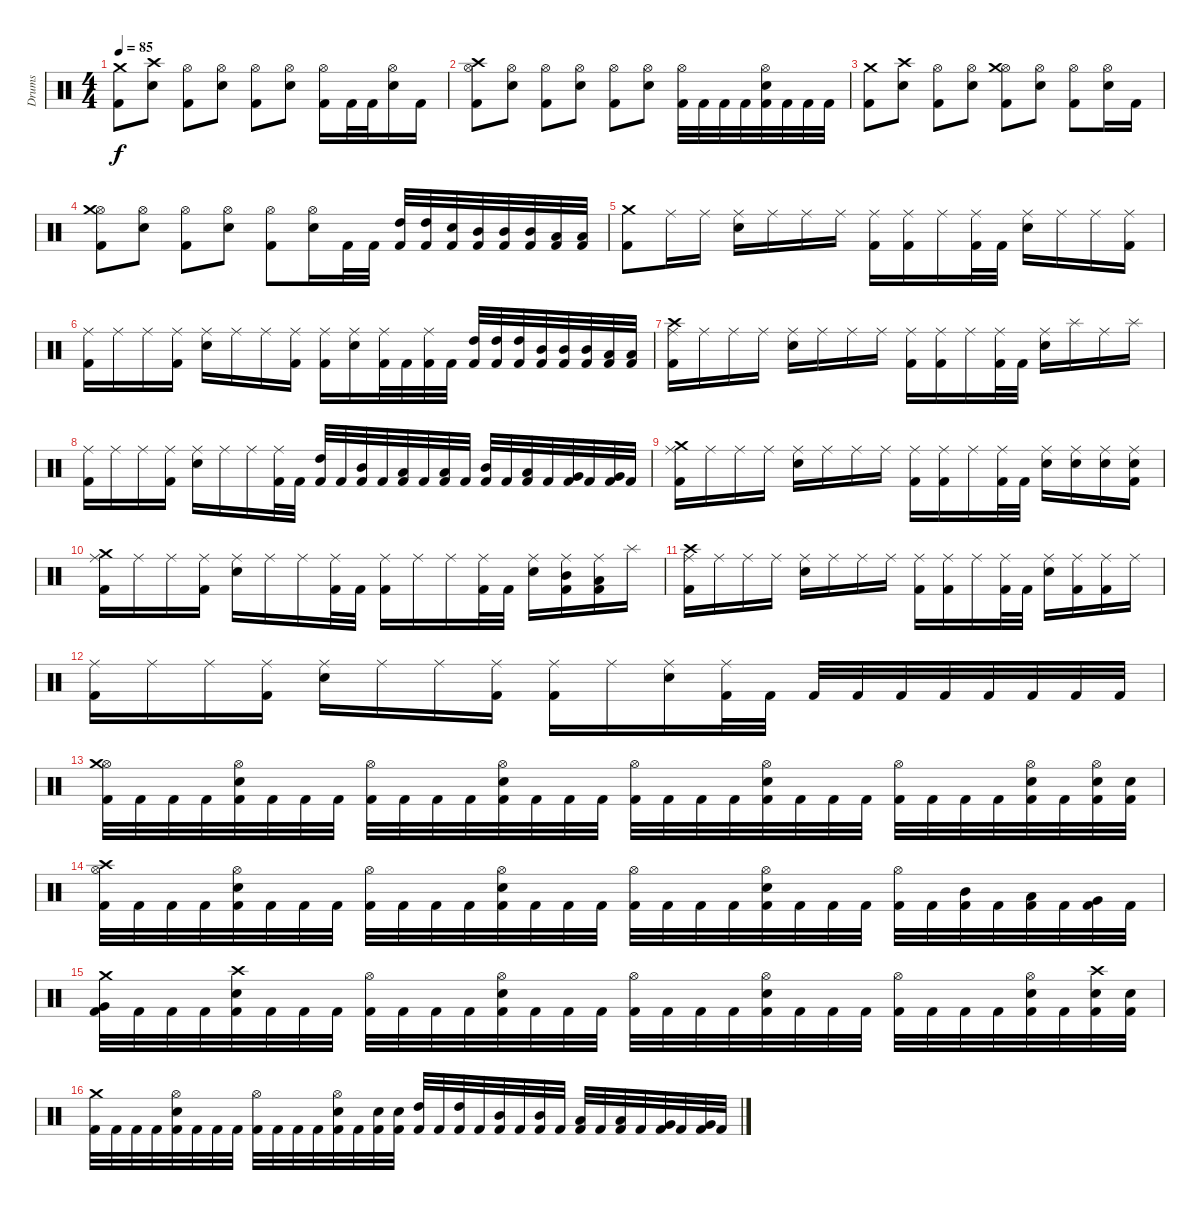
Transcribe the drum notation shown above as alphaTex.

\track ("Drums" "Drums") {instrument percussion}
\staff {score}
\articulation defaults
\ts (4 4)
\tempo 85
\clef neutral
\ks c
("Kick (hit) 2" "Crash medium (hit)").8{dy f} ("Electric Snare (hit)" "Crash high (hit)").8 ("Kick (hit) 2" "Hi-Hat (open)").8 ("Electric Snare (hit)" "Hi-Hat (open)").8 ("Kick (hit) 2" "Hi-Hat (open)").8 ("Electric Snare (hit)" "Hi-Hat (open)").8 ("Kick (hit) 2" "Hi-Hat (open)").16 "Kick (hit) 2".32 "Kick (hit) 2".32 ("Electric Snare (hit)" "Hi-Hat (open)").16 "Kick (hit) 2".16 |
("Kick (hit) 2" "Hi-Hat (open)" "Crash high (hit)").8 ("Electric Snare (hit)" "Hi-Hat (open)").8 ("Kick (hit) 2" "Hi-Hat (open)").8 ("Electric Snare (hit)" "Hi-Hat (open)").8 ("Kick (hit) 2" "Hi-Hat (open)").8 ("Electric Snare (hit)" "Hi-Hat (open)").8 ("Kick (hit) 2" "Hi-Hat (open)").32 "Kick (hit) 2".32 "Kick (hit) 2".32 "Kick (hit) 2".32 ("Kick (hit) 2" "Electric Snare (hit)" "Hi-Hat (open)").32 "Kick (hit) 2".32 "Kick (hit) 2".32 "Kick (hit) 2".32 |
("Kick (hit) 2" "Crash medium (hit)").8 ("Electric Snare (hit)" "Crash high (hit)").8 ("Kick (hit) 2" "Hi-Hat (open)").8 ("Electric Snare (hit)" "Hi-Hat (open)").8 ("Kick (hit) 2" "Hi-Hat (open)" "Crash medium (hit)").8 ("Electric Snare (hit)" "Hi-Hat (open)").8 ("Kick (hit) 2" "Hi-Hat (open)").8 ("Electric Snare (hit)" "Hi-Hat (open)").16 "Kick (hit) 2".16 |
("Kick (hit) 2" "Hi-Hat (open)" "Crash medium (hit)").8 ("Electric Snare (hit)" "Hi-Hat (open)").8 ("Kick (hit) 2" "Hi-Hat (open)").8 ("Electric Snare (hit)" "Hi-Hat (open)").8 ("Kick (hit) 2" "Hi-Hat (open)").8 ("Electric Snare (hit)" "Hi-Hat (open)").16 "Kick (hit) 2".32 "Kick (hit) 2".32 ("Kick (hit) 2" "High Tom (hit)").32 ("Kick (hit) 2" "High Tom (hit)").32 ("Kick (hit) 2" "Electric Snare (hit)").32 ("Kick (hit) 2" "Mid Tom (hit)").32 ("Kick (hit) 2" "Mid Tom (hit)").32 ("Kick (hit) 2" "Mid Tom (hit)").32 ("Kick (hit) 2" "Low Tom (hit)").32 ("Kick (hit) 2" "Low Tom (hit)").32 |
("Kick (hit) 2" "Crash medium (hit)").8 "Ride (middle)".16 "Ride (middle)".16 ("Electric Snare (hit)" "Ride (middle)").16 "Ride (middle)".16 "Ride (middle)".16 "Ride (middle)".16 ("Kick (hit) 2" "Ride (middle)").16 ("Kick (hit) 2" "Ride (middle)").16 "Ride (middle)".16 ("Kick (hit) 2" "Ride (middle)").32 "Kick (hit) 2".32 ("Electric Snare (hit)" "Ride (middle)").16 "Ride (middle)".16 "Ride (middle)".16 ("Kick (hit) 2" "Ride (middle)").16 |
("Kick (hit) 2" "Ride (middle)").16 "Ride (middle)".16 "Ride (middle)".16 ("Kick (hit) 2" "Ride (middle)").16 ("Electric Snare (hit)" "Ride (middle)").16 "Ride (middle)".16 "Ride (middle)".16 ("Kick (hit) 2" "Ride (middle)").16 ("Kick (hit) 2" "Ride (middle)").16 ("Electric Snare (hit)" "Ride (middle)").16 ("Kick (hit) 2" "Ride (middle)").32 "Kick (hit) 2".32 ("Kick (hit) 2" "Ride (middle)").32 "Kick (hit) 2".32 ("Kick (hit) 2" "High Tom (hit)").32 ("Kick (hit) 2" "High Tom (hit)").32 ("Kick (hit) 2" "High Tom (hit)").32 ("Kick (hit) 2" "Mid Tom (hit)").32 ("Kick (hit) 2" "Mid Tom (hit)").32 ("Kick (hit) 2" "Mid Tom (hit)").32 ("Kick (hit) 2" "Low Tom (hit)").32 ("Kick (hit) 2" "Low Tom (hit)").32 |
("Kick (hit) 2" "Ride (middle)" "Crash high (hit)").16 "Ride (middle)".16 "Ride (middle)".16 "Ride (middle)".16 ("Electric Snare (hit)" "Ride (middle)").16 "Ride (middle)".16 "Ride (middle)".16 "Ride (middle)".16 ("Kick (hit) 2" "Ride (middle)").16 ("Kick (hit) 2" "Ride (middle)").16 "Ride (middle)".16 ("Kick (hit) 2" "Ride (middle)").32 "Kick (hit) 2".32 ("Electric Snare (hit)" "Ride (middle)").16 "Splash (hit)".16 "Ride (middle)".16 "Splash (hit)".16 |
("Kick (hit) 2" "Ride (middle)").16 "Ride (middle)".16 "Ride (middle)".16 ("Kick (hit) 2" "Ride (middle)").16 ("Electric Snare (hit)" "Ride (middle)").16 "Ride (middle)".16 "Ride (middle)".16 ("Kick (hit) 2" "Ride (middle)").32 "Kick (hit) 2".32 ("Kick (hit) 2" "High Tom (hit)").32 "Kick (hit) 2".32 ("Kick (hit) 2" "Mid Tom (hit)").32 "Kick (hit) 2".32 ("Kick (hit) 2" "Low Tom (hit)").32 "Kick (hit) 2".32 ("Kick (hit) 2" "Low Tom (hit)").32 "Kick (hit) 2".32 ("Kick (hit) 2" "Mid Tom (hit)").32 "Kick (hit) 2".32 ("Kick (hit) 2" "Low Tom (hit)").32 "Kick (hit) 2".32 ("Kick (hit) 2" "Very Low Tom (hit)").32 "Kick (hit) 2".32 ("Kick (hit) 2" "Very Low Tom (hit)").32 "Kick (hit) 2".32 |
("Kick (hit) 2" "Ride (middle)" "Crash medium (hit)").16 "Ride (middle)".16 "Ride (middle)".16 "Ride (middle)".16 ("Electric Snare (hit)" "Ride (middle)").16 "Ride (middle)".16 "Ride (middle)".16 "Ride (middle)".16 ("Kick (hit) 2" "Ride (middle)").16 ("Kick (hit) 2" "Ride (middle)").16 "Ride (middle)".16 ("Kick (hit) 2" "Ride (middle)").32 "Kick (hit) 2".32 ("Electric Snare (hit)" "Ride (middle)").16 ("Electric Snare (hit)" "Ride (middle)").16 ("Electric Snare (hit)" "Ride (middle)").16 ("Kick (hit) 2" "Electric Snare (hit)" "Ride (middle)").16 |
("Kick (hit) 2" "Ride (middle)" "Crash medium (hit)").16 "Ride (middle)".16 "Ride (middle)".16 ("Kick (hit) 2" "Ride (middle)").16 ("Electric Snare (hit)" "Ride (middle)").16 "Ride (middle)".16 "Ride (middle)".16 ("Kick (hit) 2" "Ride (middle)").32 "Kick (hit) 2".32 ("Kick (hit) 2" "Ride (middle)").16 "Ride (middle)".16 "Ride (middle)".16 ("Kick (hit) 2" "Ride (middle)").32 "Kick (hit) 2".32 ("Electric Snare (hit)" "Ride (middle)").16 ("Kick (hit) 2" "Mid Tom (hit)" "Ride (middle)").16 ("Kick (hit) 2" "Low Tom (hit)" "Ride (middle)").16 "Splash (hit)".16 |
("Kick (hit) 2" "Ride (middle)" "Crash high (hit)").16 "Ride (middle)".16 "Ride (middle)".16 "Ride (middle)".16 ("Electric Snare (hit)" "Ride (middle)").16 "Ride (middle)".16 "Ride (middle)".16 "Ride (middle)".16 ("Kick (hit) 2" "Ride (middle)").16 ("Kick (hit) 2" "Ride (middle)").16 "Ride (middle)".16 ("Kick (hit) 2" "Ride (middle)").32 "Kick (hit) 2".32 ("Electric Snare (hit)" "Ride (middle)").16 ("Kick (hit) 2" "Ride (middle)").16 ("Kick (hit) 2" "Ride (middle)").16 "Ride (middle)".16 |
("Kick (hit) 2" "Ride (middle)").16 "Ride (middle)".16 "Ride (middle)".16 ("Kick (hit) 2" "Ride (middle)").16 ("Electric Snare (hit)" "Ride (middle)").16 "Ride (middle)".16 "Ride (middle)".16 ("Kick (hit) 2" "Ride (middle)").16 ("Kick (hit) 2" "Ride (middle)").16 "Ride (middle)".16 ("Electric Snare (hit)" "Ride (middle)").16 ("Kick (hit) 2" "Ride (middle)").32 "Kick (hit) 2".32 "Kick (hit) 2".32 "Kick (hit) 2".32 "Kick (hit) 2".32 "Kick (hit) 2".32 "Kick (hit) 2".32 "Kick (hit) 2".32 "Kick (hit) 2".32 "Kick (hit) 2".32 |
("Kick (hit) 2" "Hi-Hat (open)" "Crash medium (hit)").32 "Kick (hit) 2".32 "Kick (hit) 2".32 "Kick (hit) 2".32 ("Kick (hit) 2" "Electric Snare (hit)" "Hi-Hat (open)").32 "Kick (hit) 2".32 "Kick (hit) 2".32 "Kick (hit) 2".32 ("Kick (hit) 2" "Hi-Hat (open)").32 "Kick (hit) 2".32 "Kick (hit) 2".32 "Kick (hit) 2".32 ("Kick (hit) 2" "Electric Snare (hit)" "Hi-Hat (open)").32 "Kick (hit) 2".32 "Kick (hit) 2".32 "Kick (hit) 2".32 ("Kick (hit) 2" "Hi-Hat (open)").32 "Kick (hit) 2".32 "Kick (hit) 2".32 "Kick (hit) 2".32 ("Kick (hit) 2" "Electric Snare (hit)" "Hi-Hat (open)").32 "Kick (hit) 2".32 "Kick (hit) 2".32 "Kick (hit) 2".32 ("Kick (hit) 2" "Hi-Hat (open)").32 "Kick (hit) 2".32 "Kick (hit) 2".32 "Kick (hit) 2".32 ("Kick (hit) 2" "Electric Snare (hit)" "Hi-Hat (open)").32 "Kick (hit) 2".32 ("Kick (hit) 2" "Electric Snare (hit)" "Hi-Hat (open)").32 ("Kick (hit) 2" "Electric Snare (hit)").32 |
("Kick (hit) 2" "Hi-Hat (open)" "Crash high (hit)").32 "Kick (hit) 2".32 "Kick (hit) 2".32 "Kick (hit) 2".32 ("Kick (hit) 2" "Electric Snare (hit)" "Hi-Hat (open)").32 "Kick (hit) 2".32 "Kick (hit) 2".32 "Kick (hit) 2".32 ("Kick (hit) 2" "Hi-Hat (open)").32 "Kick (hit) 2".32 "Kick (hit) 2".32 "Kick (hit) 2".32 ("Kick (hit) 2" "Electric Snare (hit)" "Hi-Hat (open)").32 "Kick (hit) 2".32 "Kick (hit) 2".32 "Kick (hit) 2".32 ("Kick (hit) 2" "Hi-Hat (open)").32 "Kick (hit) 2".32 "Kick (hit) 2".32 "Kick (hit) 2".32 ("Kick (hit) 2" "Electric Snare (hit)" "Hi-Hat (open)").32 "Kick (hit) 2".32 "Kick (hit) 2".32 "Kick (hit) 2".32 ("Kick (hit) 2" "Hi-Hat (open)").32 "Kick (hit) 2".32 ("Kick (hit) 2" "Mid Tom (hit)").32 "Kick (hit) 2".32 ("Kick (hit) 2" "Low Tom (hit)").32 "Kick (hit) 2".32 ("Kick (hit) 2" "Very Low Tom (hit)").32 "Kick (hit) 2".32 |
("Kick (hit) 2" "Very Low Tom (hit)" "Crash medium (hit)").32 "Kick (hit) 2".32 "Kick (hit) 2".32 "Kick (hit) 2".32 ("Kick (hit) 2" "Electric Snare (hit)" "Crash high (hit)").32 "Kick (hit) 2".32 "Kick (hit) 2".32 "Kick (hit) 2".32 ("Kick (hit) 2" "Hi-Hat (open)").32 "Kick (hit) 2".32 "Kick (hit) 2".32 "Kick (hit) 2".32 ("Kick (hit) 2" "Electric Snare (hit)" "Hi-Hat (open)").32 "Kick (hit) 2".32 "Kick (hit) 2".32 "Kick (hit) 2".32 ("Kick (hit) 2" "Hi-Hat (open)").32 "Kick (hit) 2".32 "Kick (hit) 2".32 "Kick (hit) 2".32 ("Kick (hit) 2" "Electric Snare (hit)" "Hi-Hat (open)").32 "Kick (hit) 2".32 "Kick (hit) 2".32 "Kick (hit) 2".32 ("Kick (hit) 2" "Hi-Hat (open)").32 "Kick (hit) 2".32 "Kick (hit) 2".32 "Kick (hit) 2".32 ("Kick (hit) 2" "Electric Snare (hit)" "Hi-Hat (open)").32 "Kick (hit) 2".32 ("Kick (hit) 2" "Electric Snare (hit)" "Crash high (hit)").32 ("Kick (hit) 2" "Electric Snare (hit)").32 |
("Kick (hit) 2" "Crash medium (hit)").32 "Kick (hit) 2".32 "Kick (hit) 2".32 "Kick (hit) 2".32 ("Kick (hit) 2" "Electric Snare (hit)" "Hi-Hat (open)").32 "Kick (hit) 2".32 "Kick (hit) 2".32 "Kick (hit) 2".32 ("Kick (hit) 2" "Hi-Hat (open)").32 "Kick (hit) 2".32 "Kick (hit) 2".32 "Kick (hit) 2".32 ("Kick (hit) 2" "Electric Snare (hit)" "Hi-Hat (open)").32 "Kick (hit) 2".32 ("Kick (hit) 2" "Electric Snare (hit)").32 ("Kick (hit) 2" "Electric Snare (hit)").32 ("Kick (hit) 2" "High Tom (hit)").32 "Kick (hit) 2".32 ("Kick (hit) 2" "High Tom (hit)").32 "Kick (hit) 2".32 ("Kick (hit) 2" "Mid Tom (hit)").32 "Kick (hit) 2".32 ("Kick (hit) 2" "Mid Tom (hit)").32 "Kick (hit) 2".32 ("Kick (hit) 2" "Low Tom (hit)").32 "Kick (hit) 2".32 ("Kick (hit) 2" "Low Tom (hit)").32 "Kick (hit) 2".32 ("Kick (hit) 2" "Very Low Tom (hit)").32 "Kick (hit) 2".32 ("Kick (hit) 2" "Very Low Tom (hit)").32 "Kick (hit) 2".32
